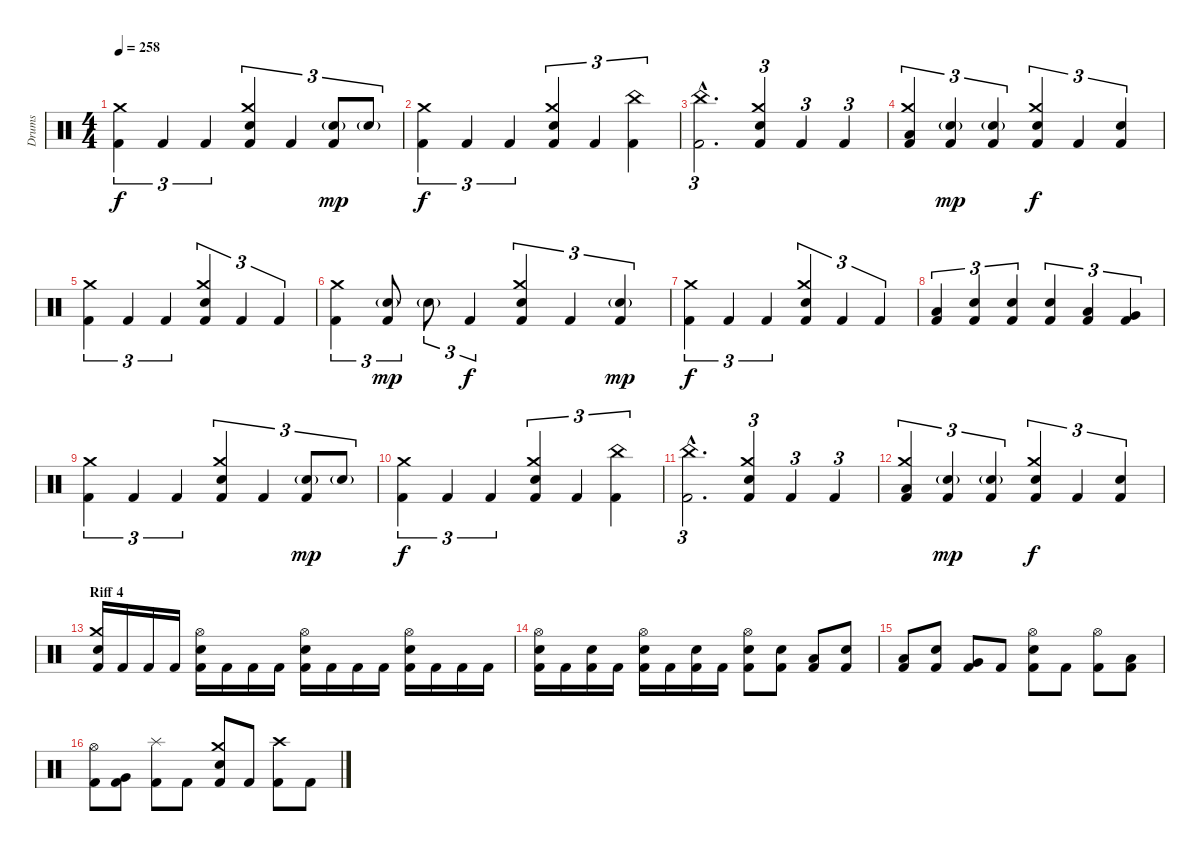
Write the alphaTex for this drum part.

\track ("Drums" "Drums") {instrument percussion}
\staff {score}
\articulation defaults
\ts (4 4)
\tempo 258
\clef neutral
\ks c
("Kick (hit) 2" "Crash medium (hit)").4{tu (3 2) dy f} "Kick (hit) 2".4{tu (3 2)} "Kick (hit) 2".4{tu (3 2)} ("Kick (hit) 2" "Snare (hit) 2" "Crash medium (hit)").4{tu (3 2)} "Kick (hit) 2".4{tu (3 2)} ("Kick (hit) 2" "Snare (hit) 2"{g}).8{tu (3 2) dy mp} "Snare (hit) 2"{g}.8{tu (3 2)} |
("Kick (hit) 2" "Crash medium (hit)").4{tu (3 2) dy f} "Kick (hit) 2".4{tu (3 2)} "Kick (hit) 2".4{tu (3 2)} ("Kick (hit) 2" "Snare (hit) 2" "Crash medium (hit)").4{tu (3 2)} "Kick (hit) 2".4{tu (3 2)} ("Kick (hit) 2" "China (hit)").4{tu (3 2)} |
("Kick (hit) 2"{hac} "China (hit)"{hac}).2{d tu (3 2)} ("Kick (hit) 2" "Snare (hit) 2" "Crash medium (hit)").4{tu (3 2)} "Kick (hit) 2".4{tu (3 2)} "Kick (hit) 2".4{tu (3 2)} |
("Kick (hit) 2" "Low Tom (hit)" "Crash medium (hit)").4{tu (3 2)} ("Kick (hit) 2" "Snare (hit) 2"{g}).4{tu (3 2) dy mp} ("Kick (hit) 2" "Snare (hit) 2"{g}).4{tu (3 2)} ("Kick (hit) 2" "Snare (hit) 2" "Crash medium (hit)").4{tu (3 2) dy f} "Kick (hit) 2".4{tu (3 2)} ("Kick (hit) 2" "Snare (hit) 2").4{tu (3 2)} |
("Kick (hit) 2" "Crash medium (hit)").4{tu (3 2)} "Kick (hit) 2".4{tu (3 2)} "Kick (hit) 2".4{tu (3 2)} ("Kick (hit) 2" "Snare (hit) 2" "Crash medium (hit)").4{tu (3 2)} "Kick (hit) 2".4{tu (3 2)} "Kick (hit) 2".4{tu (3 2)} |
("Kick (hit) 2" "Crash medium (hit)").4{tu (3 2)} ("Kick (hit) 2" "Snare (hit) 2"{g}).8{tu (3 2) dy mp} "Snare (hit) 2"{g}.8{tu (3 2)} "Kick (hit) 2".4{tu (3 2) dy f} ("Kick (hit) 2" "Snare (hit) 2" "Crash medium (hit)").4{tu (3 2)} "Kick (hit) 2".4{tu (3 2)} ("Kick (hit) 2" "Snare (hit) 2"{g}).4{tu (3 2) dy mp} |
("Kick (hit) 2" "Crash medium (hit)").4{tu (3 2) dy f} "Kick (hit) 2".4{tu (3 2)} "Kick (hit) 2".4{tu (3 2)} ("Kick (hit) 2" "Snare (hit) 2" "Crash medium (hit)").4{tu (3 2)} "Kick (hit) 2".4{tu (3 2)} "Kick (hit) 2".4{tu (3 2)} |
("Kick (hit) 2" "Low Tom (hit)").4{tu (3 2)} ("Kick (hit) 2" "Snare (hit) 2").4{tu (3 2)} ("Kick (hit) 2" "Snare (hit) 2").4{tu (3 2)} ("Kick (hit) 2" "Snare (hit) 2").4{tu (3 2)} ("Kick (hit) 2" "Low Tom (hit)").4{tu (3 2)} ("Kick (hit) 2" "Very Low Tom (hit)").4{tu (3 2)} |
("Kick (hit) 2" "Crash medium (hit)").4{tu (3 2)} "Kick (hit) 2".4{tu (3 2)} "Kick (hit) 2".4{tu (3 2)} ("Kick (hit) 2" "Snare (hit) 2" "Crash medium (hit)").4{tu (3 2)} "Kick (hit) 2".4{tu (3 2)} ("Kick (hit) 2" "Snare (hit) 2"{g}).8{tu (3 2) dy mp} "Snare (hit) 2"{g}.8{tu (3 2)} |
("Kick (hit) 2" "Crash medium (hit)").4{tu (3 2) dy f} "Kick (hit) 2".4{tu (3 2)} "Kick (hit) 2".4{tu (3 2)} ("Kick (hit) 2" "Snare (hit) 2" "Crash medium (hit)").4{tu (3 2)} "Kick (hit) 2".4{tu (3 2)} ("Kick (hit) 2" "China (hit)").4{tu (3 2)} |
("Kick (hit) 2"{hac} "China (hit)"{hac}).2{d tu (3 2)} ("Kick (hit) 2" "Snare (hit) 2" "Crash medium (hit)").4{tu (3 2)} "Kick (hit) 2".4{tu (3 2)} "Kick (hit) 2".4{tu (3 2)} |
("Kick (hit) 2" "Low Tom (hit)" "Crash medium (hit)").4{tu (3 2)} ("Kick (hit) 2" "Snare (hit) 2"{g}).4{tu (3 2) dy mp} ("Kick (hit) 2" "Snare (hit) 2"{g}).4{tu (3 2)} ("Kick (hit) 2" "Snare (hit) 2" "Crash medium (hit)").4{tu (3 2) dy f} "Kick (hit) 2".4{tu (3 2)} ("Kick (hit) 2" "Snare (hit) 2").4{tu (3 2)} |
\section ("" "Riff 4")
("Kick (hit) 2" "Snare (hit) 2" "Crash medium (hit)").16 "Kick (hit) 2".16 "Kick (hit) 2".16 "Kick (hit) 2".16 ("Kick (hit) 2" "Snare (hit) 2" "Hi-Hat (open)").16 "Kick (hit) 2".16 "Kick (hit) 2".16 "Kick (hit) 2".16 ("Kick (hit) 2" "Snare (hit) 2" "Hi-Hat (open)").16 "Kick (hit) 2".16 "Kick (hit) 2".16 "Kick (hit) 2".16 ("Kick (hit) 2" "Snare (hit) 2" "Hi-Hat (open)").16 "Kick (hit) 2".16 "Kick (hit) 2".16 "Kick (hit) 2".16 |
("Kick (hit) 2" "Snare (hit) 2" "Hi-Hat (open)").16 "Kick (hit) 2".16 ("Kick (hit) 2" "Snare (hit) 2").16 "Kick (hit) 2".16 ("Kick (hit) 2" "Snare (hit) 2" "Hi-Hat (open)").16 "Kick (hit) 2".16 ("Kick (hit) 2" "Snare (hit) 2").16 "Kick (hit) 2".16 ("Kick (hit) 2" "Snare (hit) 2" "Hi-Hat (open)").8 ("Kick (hit) 2" "Snare (hit) 2").8 ("Kick (hit) 2" "Low Tom (hit)").8 ("Kick (hit) 2" "Snare (hit) 2").8 |
("Kick (hit) 2" "Low Tom (hit)").8 ("Kick (hit) 2" "Snare (hit) 2").8 ("Kick (hit) 2" "Very Low Tom (hit)").8 "Kick (hit) 2".8 ("Kick (hit) 2" "Snare (hit) 2" "Hi-Hat (open)").8 "Kick (hit) 2".8 ("Kick (hit) 2" "Hi-Hat (open)").8 ("Kick (hit) 2" "Low Tom (hit)").8 |
("Kick (hit) 2" "Hi-Hat (open)").8 ("Kick (hit) 2" "Very Low Tom (hit)").8 ("Kick (hit) 2" "Splash (hit)").8 "Kick (hit) 2".8 ("Kick (hit) 2" "Snare (hit) 2" "Crash medium (hit)").8 "Kick (hit) 2".8 ("Kick (hit) 2" "Crash high (hit)").8 "Kick (hit) 2".8
